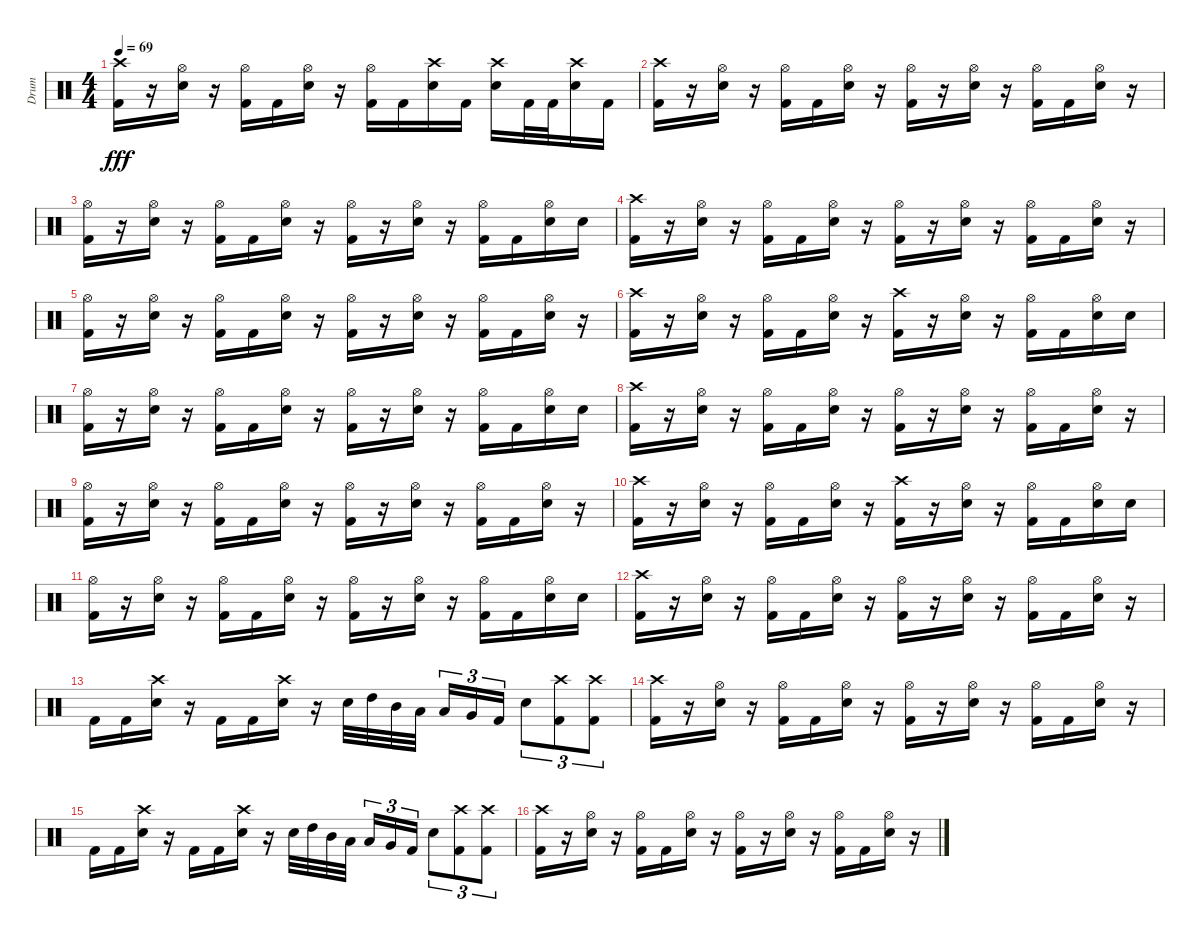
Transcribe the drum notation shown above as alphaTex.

\track ("Drum" "Drum") {instrument percussion}
\staff {score}
\articulation defaults
\ts (4 4)
\tempo 69
\clef neutral
\ks c
("Kick (hit) 2" "Crash high (hit)").16{dy fff} r.16 ("Electric Snare (hit)" "Hi-Hat (open)").16 r.16 ("Kick (hit) 2" "Hi-Hat (open)").16 "Kick (hit) 2".16 ("Electric Snare (hit)" "Hi-Hat (open)").16 r.16 ("Kick (hit) 2" "Hi-Hat (open)").16 "Kick (hit) 2".16 ("Electric Snare (hit)" "Crash high (hit)").16 "Kick (hit) 2".16 ("Electric Snare (hit)" "Crash high (hit)").16 "Kick (hit) 2".32 "Kick (hit) 2".32 ("Electric Snare (hit)" "Crash high (hit)").16 "Kick (hit) 2".16 |
("Crash high (hit)" "Kick (hit) 2").16 r.16 ("Hi-Hat (open)" "Electric Snare (hit)").16 r.16 ("Kick (hit) 2" "Hi-Hat (open)").16 "Kick (hit) 2".16 ("Electric Snare (hit)" "Hi-Hat (open)").16 r.16 ("Hi-Hat (open)" "Kick (hit) 2").16 r.16 ("Hi-Hat (open)" "Electric Snare (hit)").16 r.16 ("Kick (hit) 2" "Hi-Hat (open)").16 "Kick (hit) 2".16 ("Hi-Hat (open)" "Electric Snare (hit)").16 r.16 |
("Hi-Hat (open)" "Kick (hit) 2").16 r.16 ("Electric Snare (hit)" "Hi-Hat (open)").16 r.16 ("Kick (hit) 2" "Hi-Hat (open)").16 "Kick (hit) 2".16 ("Electric Snare (hit)" "Hi-Hat (open)").16 r.16 ("Hi-Hat (open)" "Kick (hit) 2").16 r.16 ("Electric Snare (hit)" "Hi-Hat (open)").16 r.16 ("Kick (hit) 2" "Hi-Hat (open)").16 "Kick (hit) 2".16 ("Electric Snare (hit)" "Hi-Hat (open)").16 "Electric Snare (hit)".16 |
("Crash high (hit)" "Kick (hit) 2").16 r.16 ("Hi-Hat (open)" "Electric Snare (hit)").16 r.16 ("Kick (hit) 2" "Hi-Hat (open)").16 "Kick (hit) 2".16 ("Hi-Hat (open)" "Electric Snare (hit)").16 r.16 ("Hi-Hat (open)" "Kick (hit) 2").16 r.16 ("Electric Snare (hit)" "Hi-Hat (open)").16 r.16 ("Kick (hit) 2" "Hi-Hat (open)").16 "Kick (hit) 2".16 ("Electric Snare (hit)" "Hi-Hat (open)").16 r.16 |
("Hi-Hat (open)" "Kick (hit) 2").16 r.16 ("Electric Snare (hit)" "Hi-Hat (open)").16 r.16 ("Hi-Hat (open)" "Kick (hit) 2").16 "Kick (hit) 2".16 ("Electric Snare (hit)" "Hi-Hat (open)").16 r.16 ("Hi-Hat (open)" "Kick (hit) 2").16 r.16 ("Electric Snare (hit)" "Hi-Hat (open)").16 r.16 ("Hi-Hat (open)" "Kick (hit) 2").16 "Kick (hit) 2".16 ("Hi-Hat (open)" "Electric Snare (hit)").16 r.16 |
("Crash high (hit)" "Kick (hit) 2").16 r.16 ("Electric Snare (hit)" "Hi-Hat (open)").16 r.16 ("Kick (hit) 2" "Hi-Hat (open)").16 "Kick (hit) 2".16 ("Hi-Hat (open)" "Electric Snare (hit)").16 r.16 ("Kick (hit) 2" "Crash high (hit)").16 r.16 ("Electric Snare (hit)" "Hi-Hat (open)").16 r.16 ("Kick (hit) 2" "Hi-Hat (open)").16 "Kick (hit) 2".16 ("Hi-Hat (open)" "Electric Snare (hit)").16 "Electric Snare (hit)".16 |
("Hi-Hat (open)" "Kick (hit) 2").16 r.16 ("Electric Snare (hit)" "Hi-Hat (open)").16 r.16 ("Kick (hit) 2" "Hi-Hat (open)").16 "Kick (hit) 2".16 ("Electric Snare (hit)" "Hi-Hat (open)").16 r.16 ("Hi-Hat (open)" "Kick (hit) 2").16 r.16 ("Electric Snare (hit)" "Hi-Hat (open)").16 r.16 ("Kick (hit) 2" "Hi-Hat (open)").16 "Kick (hit) 2".16 ("Electric Snare (hit)" "Hi-Hat (open)").16 "Electric Snare (hit)".16 |
("Crash high (hit)" "Kick (hit) 2").16 r.16 ("Hi-Hat (open)" "Electric Snare (hit)").16 r.16 ("Kick (hit) 2" "Hi-Hat (open)").16 "Kick (hit) 2".16 ("Hi-Hat (open)" "Electric Snare (hit)").16 r.16 ("Hi-Hat (open)" "Kick (hit) 2").16 r.16 ("Electric Snare (hit)" "Hi-Hat (open)").16 r.16 ("Kick (hit) 2" "Hi-Hat (open)").16 "Kick (hit) 2".16 ("Electric Snare (hit)" "Hi-Hat (open)").16 r.16 |
("Hi-Hat (open)" "Kick (hit) 2").16 r.16 ("Electric Snare (hit)" "Hi-Hat (open)").16 r.16 ("Hi-Hat (open)" "Kick (hit) 2").16 "Kick (hit) 2".16 ("Electric Snare (hit)" "Hi-Hat (open)").16 r.16 ("Hi-Hat (open)" "Kick (hit) 2").16 r.16 ("Electric Snare (hit)" "Hi-Hat (open)").16 r.16 ("Hi-Hat (open)" "Kick (hit) 2").16 "Kick (hit) 2".16 ("Hi-Hat (open)" "Electric Snare (hit)").16 r.16 |
("Crash high (hit)" "Kick (hit) 2").16 r.16 ("Electric Snare (hit)" "Hi-Hat (open)").16 r.16 ("Kick (hit) 2" "Hi-Hat (open)").16 "Kick (hit) 2".16 ("Hi-Hat (open)" "Electric Snare (hit)").16 r.16 ("Kick (hit) 2" "Crash high (hit)").16 r.16 ("Electric Snare (hit)" "Hi-Hat (open)").16 r.16 ("Kick (hit) 2" "Hi-Hat (open)").16 "Kick (hit) 2".16 ("Hi-Hat (open)" "Electric Snare (hit)").16 "Electric Snare (hit)".16 |
("Hi-Hat (open)" "Kick (hit) 2").16 r.16 ("Electric Snare (hit)" "Hi-Hat (open)").16 r.16 ("Kick (hit) 2" "Hi-Hat (open)").16 "Kick (hit) 2".16 ("Electric Snare (hit)" "Hi-Hat (open)").16 r.16 ("Hi-Hat (open)" "Kick (hit) 2").16 r.16 ("Electric Snare (hit)" "Hi-Hat (open)").16 r.16 ("Kick (hit) 2" "Hi-Hat (open)").16 "Kick (hit) 2".16 ("Electric Snare (hit)" "Hi-Hat (open)").16 "Electric Snare (hit)".16 |
("Kick (hit) 2" "Crash high (hit)").16 r.16 ("Hi-Hat (open)" "Electric Snare (hit)").16 r.16 ("Kick (hit) 2" "Hi-Hat (open)").16 "Kick (hit) 2".16 ("Electric Snare (hit)" "Hi-Hat (open)").16 r.16 ("Hi-Hat (open)" "Kick (hit) 2").16 r.16 ("Electric Snare (hit)" "Hi-Hat (open)").16 r.16 ("Hi-Hat (open)" "Kick (hit) 2").16 "Kick (hit) 2".16 ("Electric Snare (hit)" "Hi-Hat (open)").16 r.16 |
"Kick (hit) 2".16 "Kick (hit) 2".16 ("Electric Snare (hit)" "Crash high (hit)").16 r.16 "Kick (hit) 2".16 "Kick (hit) 2".16 ("Electric Snare (hit)" "Crash high (hit)").16 r.16 "Electric Snare (hit)".32 "High Tom (hit)".32 "Mid Tom (hit)".32 "Low Tom (hit)".32{beam splitsecondary} "Low Tom (hit)".16{tu (3 2)} "Very Low Tom (hit)".16{tu (3 2)} "Kick (hit) 2".16{tu (3 2)} "Electric Snare (hit)".8{tu (3 2)} ("Crash high (hit)" "Kick (hit) 2").8{tu (3 2)} ("Crash high (hit)" "Kick (hit) 2").8{tu (3 2)} |
("Kick (hit) 2" "Crash high (hit)").16 r.16 ("Hi-Hat (open)" "Electric Snare (hit)").16 r.16 ("Kick (hit) 2" "Hi-Hat (open)").16 "Kick (hit) 2".16 ("Electric Snare (hit)" "Hi-Hat (open)").16 r.16 ("Hi-Hat (open)" "Kick (hit) 2").16 r.16 ("Electric Snare (hit)" "Hi-Hat (open)").16 r.16 ("Hi-Hat (open)" "Kick (hit) 2").16 "Kick (hit) 2".16 ("Electric Snare (hit)" "Hi-Hat (open)").16 r.16 |
"Kick (hit) 2".16 "Kick (hit) 2".16 ("Electric Snare (hit)" "Crash high (hit)").16 r.16 "Kick (hit) 2".16 "Kick (hit) 2".16 ("Electric Snare (hit)" "Crash high (hit)").16 r.16 "Electric Snare (hit)".32 "High Tom (hit)".32 "Mid Tom (hit)".32 "Low Tom (hit)".32{beam splitsecondary} "Low Tom (hit)".16{tu (3 2)} "Very Low Tom (hit)".16{tu (3 2)} "Kick (hit) 2".16{tu (3 2)} "Electric Snare (hit)".8{tu (3 2)} ("Crash high (hit)" "Kick (hit) 2").8{tu (3 2)} ("Crash high (hit)" "Kick (hit) 2").8{tu (3 2)} |
("Kick (hit) 2" "Crash high (hit)").16 r.16 ("Hi-Hat (open)" "Electric Snare (hit)").16 r.16 ("Kick (hit) 2" "Hi-Hat (open)").16 "Kick (hit) 2".16 ("Electric Snare (hit)" "Hi-Hat (open)").16 r.16 ("Hi-Hat (open)" "Kick (hit) 2").16 r.16 ("Electric Snare (hit)" "Hi-Hat (open)").16 r.16 ("Hi-Hat (open)" "Kick (hit) 2").16 "Kick (hit) 2".16 ("Electric Snare (hit)" "Hi-Hat (open)").16 r.16
